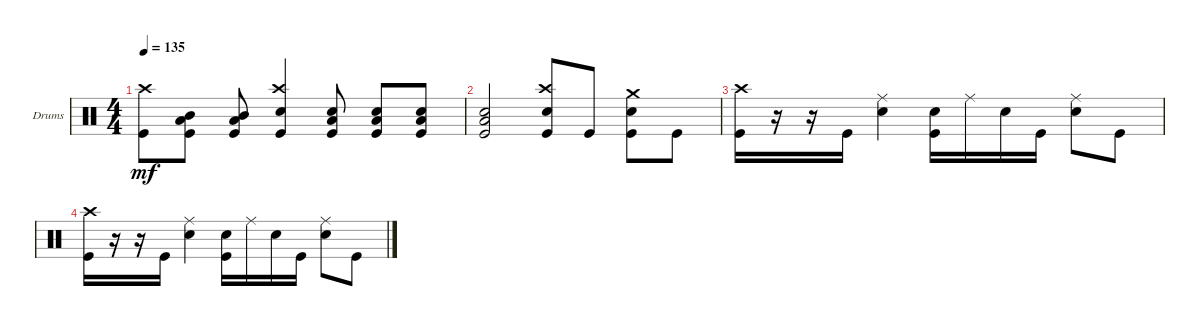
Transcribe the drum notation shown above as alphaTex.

\defaultSystemsLayout 4
\bracketExtendMode groupsimilarinstruments
\firstSystemTrackNameOrientation horizontal
\otherSystemsTrackNameOrientation horizontal
\track ("Drumkit" "Drums") {instrument percussion}
\staff {score}
\articulation defaults
\ts (4 4)
\tempo 135
\clef neutral
\ks c
("Kick (hit)" "Crash high (hit)").8{dy mf} ("Mid Tom (hit)" "Low Tom (hit)" "Kick (hit)").8 ("Mid Tom (hit)" "Low Tom (hit)" "Kick (hit)").8 ("Kick (hit)" "Snare (hit) 2" "Crash high (hit)").4 ("Kick (hit)" "Low Tom (hit)" "Snare (hit) 2").8 ("Kick (hit)" "Snare (hit) 2" "Low Tom (hit)").8 ("Kick (hit)" "Low Tom (hit)" "Snare (hit) 2").8 |
("Kick (hit)" "Snare (hit) 2" "Low Tom (hit)").2 ("Snare (hit) 2" "Kick (hit)" "Crash high (hit)").8 "Kick (hit)".8 ("Snare (hit) 2" "Crash medium (hit)" "Kick (hit)").8 "Kick (hit)".8 |
("Crash high (hit)" "Kick (hit)").16 r.16 r.16 "Kick (hit)".16 ("Ride (middle)" "Snare (hit) 2").4 ("Snare (hit) 2" "Kick (hit)").16 "Ride (middle)".16 "Snare (hit) 2".16 "Kick (hit)".16 ("Snare (hit) 2" "Ride (middle)").8 "Kick (hit)".8 |
("Crash high (hit)" "Kick (hit)").16 r.16 r.16 "Kick (hit)".16 ("Ride (middle)" "Snare (hit) 2").4 ("Snare (hit) 2" "Kick (hit)").16 "Ride (middle)".16 "Snare (hit) 2".16 "Kick (hit)".16 ("Snare (hit) 2" "Ride (middle)").8 "Kick (hit)".8
